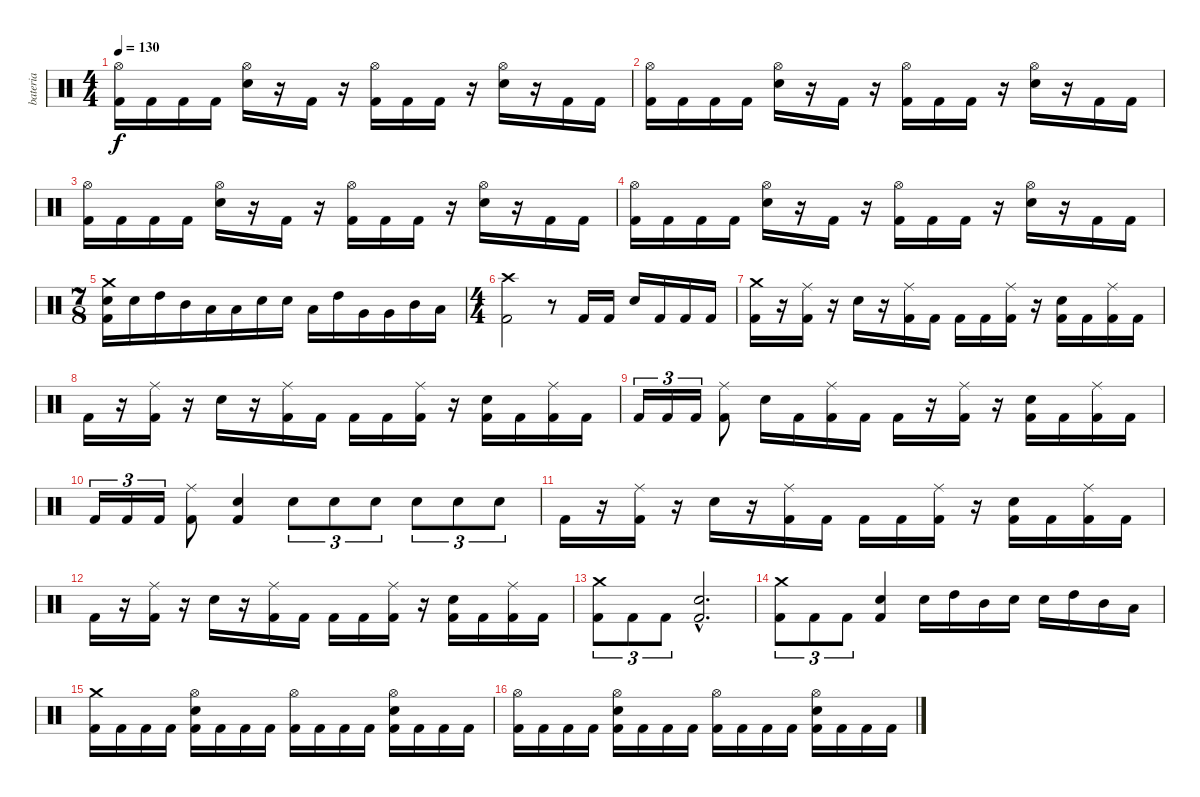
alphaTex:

\track ("bateria" "bateria") {instrument percussion}
\staff {score}
\articulation defaults
\ts (4 4)
\tempo 130
\clef neutral
\ks c
("Hi-Hat (open)" "Kick (hit) 2").16{dy f} "Kick (hit) 2".16 "Kick (hit) 2".16 "Kick (hit) 2".16 ("Hi-Hat (open)" "Electric Snare (hit)").16 r.16 "Kick (hit) 2".16 r.16 ("Hi-Hat (open)" "Kick (hit) 2").16 "Kick (hit) 2".16 "Kick (hit) 2".16 r.16 ("Hi-Hat (open)" "Electric Snare (hit)").16 r.16 "Kick (hit) 2".16 "Kick (hit) 2".16 |
("Hi-Hat (open)" "Kick (hit) 2").16 "Kick (hit) 2".16 "Kick (hit) 2".16 "Kick (hit) 2".16 ("Hi-Hat (open)" "Electric Snare (hit)").16 r.16 "Kick (hit) 2".16 r.16 ("Hi-Hat (open)" "Kick (hit) 2").16 "Kick (hit) 2".16 "Kick (hit) 2".16 r.16 ("Hi-Hat (open)" "Electric Snare (hit)").16 r.16 "Kick (hit) 2".16 "Kick (hit) 2".16 |
("Hi-Hat (open)" "Kick (hit) 2").16 "Kick (hit) 2".16 "Kick (hit) 2".16 "Kick (hit) 2".16 ("Hi-Hat (open)" "Electric Snare (hit)").16 r.16 "Kick (hit) 2".16 r.16 ("Hi-Hat (open)" "Kick (hit) 2").16 "Kick (hit) 2".16 "Kick (hit) 2".16 r.16 ("Hi-Hat (open)" "Electric Snare (hit)").16 r.16 "Kick (hit) 2".16 "Kick (hit) 2".16 |
("Hi-Hat (open)" "Kick (hit) 2").16 "Kick (hit) 2".16 "Kick (hit) 2".16 "Kick (hit) 2".16 ("Hi-Hat (open)" "Electric Snare (hit)").16 r.16 "Kick (hit) 2".16 r.16 ("Hi-Hat (open)" "Kick (hit) 2").16 "Kick (hit) 2".16 "Kick (hit) 2".16 r.16 ("Hi-Hat (open)" "Electric Snare (hit)").16 r.16 "Kick (hit) 2".16 "Kick (hit) 2".16 |
\ts (7 8)
("Crash medium (hit)" "Electric Snare (hit)" "Kick (hit) 2").16 "Electric Snare (hit)".16 "High Tom (hit)".16 "Mid Tom (hit)".16 "Low Tom (hit)".16 "Low Tom (hit)".16 "Electric Snare (hit)".16 "Electric Snare (hit)".16 "Low Tom (hit)".16 "High Tom (hit)".16 "Very Low Tom (hit)".16 "Very Low Tom (hit)".16 "Mid Tom (hit)".16 "Low Tom (hit)".16 |
\ts (4 4)
("Crash high (hit)" "Kick (hit) 2").2 r.8 "Kick (hit) 2".16 "Kick (hit) 2".16 "Electric Snare (hit)".16 "Kick (hit) 2".16 "Kick (hit) 2".16 "Kick (hit) 2".16 |
("Crash medium (hit)" "Kick (hit) 2").16 r.16 ("Ride (middle)" "Kick (hit) 2").16 r.16 "Electric Snare (hit)".16 r.16 ("Ride (middle)" "Kick (hit) 2").16 "Kick (hit) 2".16 "Kick (hit) 2".16 "Kick (hit) 2".16 ("Ride (middle)" "Kick (hit) 2").16 r.16 ("Electric Snare (hit)" "Kick (hit) 2").16 "Kick (hit) 2".16 ("Ride (middle)" "Kick (hit) 2").16 "Kick (hit) 2".16 |
"Kick (hit) 2".16 r.16 ("Ride (middle)" "Kick (hit) 2").16 r.16 "Electric Snare (hit)".16 r.16 ("Ride (middle)" "Kick (hit) 2").16 "Kick (hit) 2".16 "Kick (hit) 2".16 "Kick (hit) 2".16 ("Ride (middle)" "Kick (hit) 2").16 r.16 ("Electric Snare (hit)" "Kick (hit) 2").16 "Kick (hit) 2".16 ("Ride (middle)" "Kick (hit) 2").16 "Kick (hit) 2".16 |
"Kick (hit) 2".16{tu (3 2)} "Kick (hit) 2".16{tu (3 2)} "Kick (hit) 2".16{tu (3 2)} ("Ride (middle)" "Kick (hit) 2").8 "Electric Snare (hit)".16 "Kick (hit) 2".16 ("Ride (middle)" "Kick (hit) 2").16 "Kick (hit) 2".16 "Kick (hit) 2".16 r.16 ("Ride (middle)" "Kick (hit) 2").16 r.16 ("Electric Snare (hit)" "Kick (hit) 2").16 "Kick (hit) 2".16 ("Ride (middle)" "Kick (hit) 2").16 "Kick (hit) 2".16 |
"Kick (hit) 2".16{tu (3 2)} "Kick (hit) 2".16{tu (3 2)} "Kick (hit) 2".16{tu (3 2)} ("Ride (middle)" "Kick (hit) 2").8 ("Electric Snare (hit)" "Kick (hit) 2").4 "Electric Snare (hit)".8{tu (3 2)} "Electric Snare (hit)".8{tu (3 2)} "Electric Snare (hit)".8{tu (3 2)} "Electric Snare (hit)".8{tu (3 2)} "Electric Snare (hit)".8{tu (3 2)} "Electric Snare (hit)".8{tu (3 2)} |
"Kick (hit) 2".16 r.16 ("Ride (middle)" "Kick (hit) 2").16 r.16 "Electric Snare (hit)".16 r.16 ("Ride (middle)" "Kick (hit) 2").16 "Kick (hit) 2".16 "Kick (hit) 2".16 "Kick (hit) 2".16 ("Ride (middle)" "Kick (hit) 2").16 r.16 ("Electric Snare (hit)" "Kick (hit) 2").16 "Kick (hit) 2".16 ("Ride (middle)" "Kick (hit) 2").16 "Kick (hit) 2".16 |
"Kick (hit) 2".16 r.16 ("Ride (middle)" "Kick (hit) 2").16 r.16 "Electric Snare (hit)".16 r.16 ("Ride (middle)" "Kick (hit) 2").16 "Kick (hit) 2".16 "Kick (hit) 2".16 "Kick (hit) 2".16 ("Ride (middle)" "Kick (hit) 2").16 r.16 ("Electric Snare (hit)" "Kick (hit) 2").16 "Kick (hit) 2".16 ("Ride (middle)" "Kick (hit) 2").16 "Kick (hit) 2".16 |
("Crash medium (hit)" "Kick (hit) 2").8{tu (3 2)} "Kick (hit) 2".8{tu (3 2)} "Kick (hit) 2".8{tu (3 2)} ("Electric Snare (hit)"{hac} "Kick (hit) 2"{hac}).2{d} |
("Crash medium (hit)" "Kick (hit) 2").8{tu (3 2)} "Kick (hit) 2".8{tu (3 2)} "Kick (hit) 2".8{tu (3 2)} ("Electric Snare (hit)" "Kick (hit) 2").4 "Electric Snare (hit)".16 "High Tom (hit)".16 "Mid Tom (hit)".16 "Electric Snare (hit)".16 "Electric Snare (hit)".16 "High Tom (hit)".16 "Mid Tom (hit)".16 "Low Tom (hit)".16 |
("Crash medium (hit)" "Kick (hit) 2").16 "Kick (hit) 2".16 "Kick (hit) 2".16 "Kick (hit) 2".16 ("Hi-Hat (open)" "Electric Snare (hit)" "Kick (hit) 2").16 "Kick (hit) 2".16 "Kick (hit) 2".16 "Kick (hit) 2".16 ("Hi-Hat (open)" "Kick (hit) 2").16 "Kick (hit) 2".16 "Kick (hit) 2".16 "Kick (hit) 2".16 ("Hi-Hat (open)" "Electric Snare (hit)" "Kick (hit) 2").16 "Kick (hit) 2".16 "Kick (hit) 2".16 "Kick (hit) 2".16 |
("Hi-Hat (open)" "Kick (hit) 2").16 "Kick (hit) 2".16 "Kick (hit) 2".16 "Kick (hit) 2".16 ("Hi-Hat (open)" "Electric Snare (hit)" "Kick (hit) 2").16 "Kick (hit) 2".16 "Kick (hit) 2".16 "Kick (hit) 2".16 ("Hi-Hat (open)" "Kick (hit) 2").16 "Kick (hit) 2".16 "Kick (hit) 2".16 "Kick (hit) 2".16 ("Hi-Hat (open)" "Electric Snare (hit)" "Kick (hit) 2").16 "Kick (hit) 2".16 "Kick (hit) 2".16 "Kick (hit) 2".16
